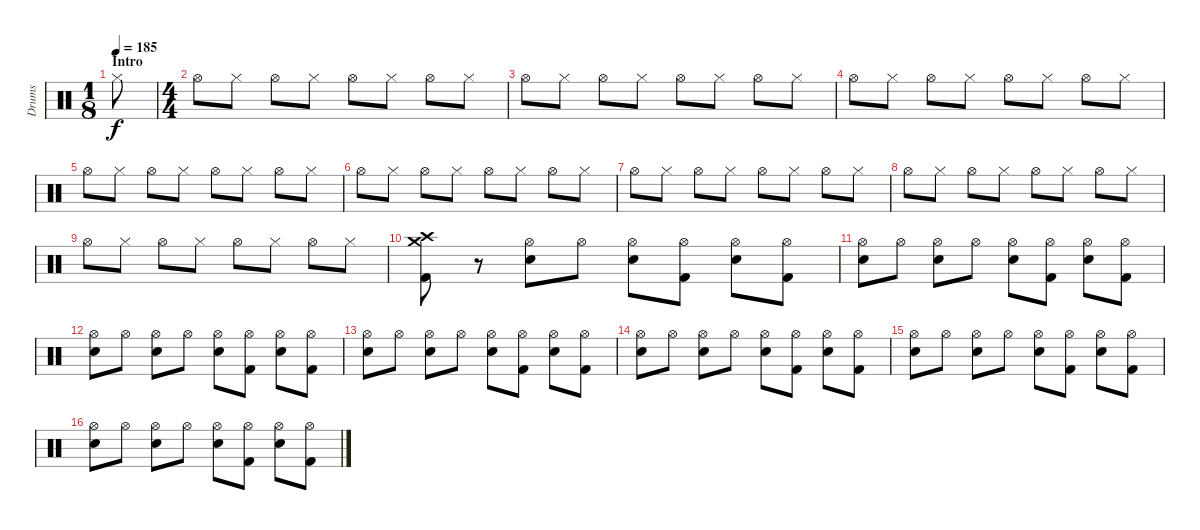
\track ("Drums" "Drums") {instrument percussion}
\staff {score}
\articulation defaults
\ts (1 8)
\section ("" "Intro")
\tempo 185
\clef neutral
\ks c "Hi-Hat (closed)".8{dy f}
|
\ts (4 4)
"Hi-Hat (open)".8 "Hi-Hat (closed)".8 "Hi-Hat (open)".8 "Hi-Hat (closed)".8 "Hi-Hat (open)".8 "Hi-Hat (closed)".8 "Hi-Hat (open)".8 "Hi-Hat (closed)".8 |
"Hi-Hat (open)".8 "Hi-Hat (closed)".8 "Hi-Hat (open)".8 "Hi-Hat (closed)".8 "Hi-Hat (open)".8 "Hi-Hat (closed)".8 "Hi-Hat (open)".8 "Hi-Hat (closed)".8 |
"Hi-Hat (open)".8 "Hi-Hat (closed)".8 "Hi-Hat (open)".8 "Hi-Hat (closed)".8 "Hi-Hat (open)".8 "Hi-Hat (closed)".8 "Hi-Hat (open)".8 "Hi-Hat (closed)".8 |
"Hi-Hat (open)".8 "Hi-Hat (closed)".8 "Hi-Hat (open)".8 "Hi-Hat (closed)".8 "Hi-Hat (open)".8 "Hi-Hat (closed)".8 "Hi-Hat (open)".8 "Hi-Hat (closed)".8 |
"Hi-Hat (open)".8 "Hi-Hat (closed)".8 "Hi-Hat (open)".8 "Hi-Hat (closed)".8 "Hi-Hat (open)".8 "Hi-Hat (closed)".8 "Hi-Hat (open)".8 "Hi-Hat (closed)".8 |
"Hi-Hat (open)".8 "Hi-Hat (closed)".8 "Hi-Hat (open)".8 "Hi-Hat (closed)".8 "Hi-Hat (open)".8 "Hi-Hat (closed)".8 "Hi-Hat (open)".8 "Hi-Hat (closed)".8 |
"Hi-Hat (open)".8 "Hi-Hat (closed)".8 "Hi-Hat (open)".8 "Hi-Hat (closed)".8 "Hi-Hat (open)".8 "Hi-Hat (closed)".8 "Hi-Hat (open)".8 "Hi-Hat (closed)".8 |
"Hi-Hat (open)".8 "Hi-Hat (closed)".8 "Hi-Hat (open)".8 "Hi-Hat (closed)".8 "Hi-Hat (open)".8 "Hi-Hat (closed)".8 "Hi-Hat (open)".8 "Hi-Hat (closed)".8 |
("Crash high (hit)" "Crash medium (hit)" "Kick (hit) 2").8 r.8 ("Hi-Hat (open)" "Electric Snare (hit)").8 "Hi-Hat (open)".8 ("Hi-Hat (open)" "Electric Snare (hit)").8 ("Hi-Hat (open)" "Kick (hit) 2").8 ("Hi-Hat (open)" "Electric Snare (hit)").8 ("Hi-Hat (open)" "Kick (hit) 2").8 |
("Hi-Hat (open)" "Electric Snare (hit)").8 "Hi-Hat (open)".8 ("Hi-Hat (open)" "Electric Snare (hit)").8 "Hi-Hat (open)".8 ("Hi-Hat (open)" "Electric Snare (hit)").8 ("Hi-Hat (open)" "Kick (hit) 2").8 ("Hi-Hat (open)" "Electric Snare (hit)").8 ("Hi-Hat (open)" "Kick (hit) 2").8 |
("Hi-Hat (open)" "Electric Snare (hit)").8 "Hi-Hat (open)".8 ("Hi-Hat (open)" "Electric Snare (hit)").8 "Hi-Hat (open)".8 ("Hi-Hat (open)" "Electric Snare (hit)").8 ("Hi-Hat (open)" "Kick (hit) 2").8 ("Hi-Hat (open)" "Electric Snare (hit)").8 ("Hi-Hat (open)" "Kick (hit) 2").8 |
("Hi-Hat (open)" "Electric Snare (hit)").8 "Hi-Hat (open)".8 ("Hi-Hat (open)" "Electric Snare (hit)").8 "Hi-Hat (open)".8 ("Hi-Hat (open)" "Electric Snare (hit)").8 ("Hi-Hat (open)" "Kick (hit) 2").8 ("Hi-Hat (open)" "Electric Snare (hit)").8 ("Hi-Hat (open)" "Kick (hit) 2").8 |
("Hi-Hat (open)" "Electric Snare (hit)").8 "Hi-Hat (open)".8 ("Hi-Hat (open)" "Electric Snare (hit)").8 "Hi-Hat (open)".8 ("Hi-Hat (open)" "Electric Snare (hit)").8 ("Hi-Hat (open)" "Kick (hit) 2").8 ("Hi-Hat (open)" "Electric Snare (hit)").8 ("Hi-Hat (open)" "Kick (hit) 2").8 |
("Hi-Hat (open)" "Electric Snare (hit)").8 "Hi-Hat (open)".8 ("Hi-Hat (open)" "Electric Snare (hit)").8 "Hi-Hat (open)".8 ("Hi-Hat (open)" "Electric Snare (hit)").8 ("Hi-Hat (open)" "Kick (hit) 2").8 ("Hi-Hat (open)" "Electric Snare (hit)").8 ("Hi-Hat (open)" "Kick (hit) 2").8 |
("Hi-Hat (open)" "Electric Snare (hit)").8 "Hi-Hat (open)".8 ("Hi-Hat (open)" "Electric Snare (hit)").8 "Hi-Hat (open)".8 ("Hi-Hat (open)" "Electric Snare (hit)").8 ("Hi-Hat (open)" "Kick (hit) 2").8 ("Hi-Hat (open)" "Electric Snare (hit)").8 ("Hi-Hat (open)" "Kick (hit) 2").8
